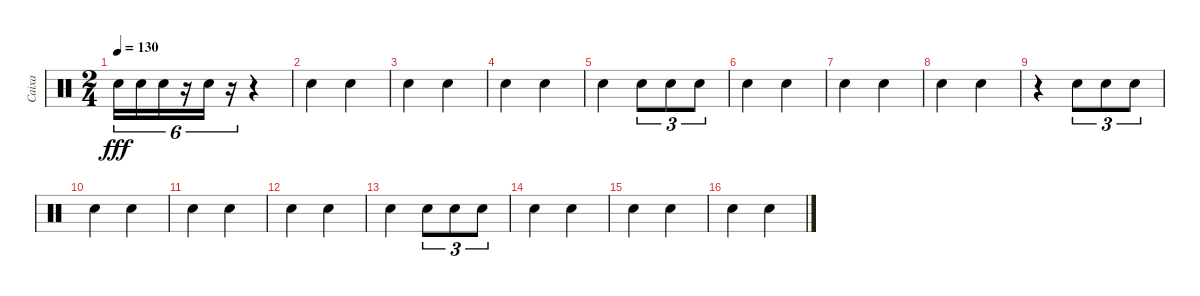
\track ("Caixa" "Caixa") {instrument percussion}
\staff {score}
\articulation defaults
\ts (2 4)
\tempo 130
\clef neutral
\ks c "Electric Snare (hit)".16{tu (6 4) dy fff} "Electric Snare (hit)".16{tu (6 4)} "Electric Snare (hit)".16{tu (6 4)}
r.16{tu (6 4)} "Electric Snare (hit)".16{tu (6 4)} r.16{tu (6 4)} r.4 |
"Electric Snare (hit)".4 "Electric Snare (hit)".4 |
"Electric Snare (hit)".4 "Electric Snare (hit)".4 |
"Electric Snare (hit)".4 "Electric Snare (hit)".4 |
"Electric Snare (hit)".4 "Electric Snare (hit)".8{tu (3 2)} "Electric Snare (hit)".8{tu (3 2)} "Electric Snare (hit)".8{tu (3 2)} |
"Electric Snare (hit)".4 "Electric Snare (hit)".4 |
"Electric Snare (hit)".4 "Electric Snare (hit)".4 |
"Electric Snare (hit)".4 "Electric Snare (hit)".4 |
r.4 "Electric Snare (hit)".8{tu (3 2)} "Electric Snare (hit)".8{tu (3 2)} "Electric Snare (hit)".8{tu (3 2)} |
"Electric Snare (hit)".4 "Electric Snare (hit)".4 |
"Electric Snare (hit)".4 "Electric Snare (hit)".4 |
"Electric Snare (hit)".4 "Electric Snare (hit)".4 |
"Electric Snare (hit)".4 "Electric Snare (hit)".8{tu (3 2)} "Electric Snare (hit)".8{tu (3 2)} "Electric Snare (hit)".8{tu (3 2)} |
"Electric Snare (hit)".4 "Electric Snare (hit)".4 |
"Electric Snare (hit)".4 "Electric Snare (hit)".4 |
"Electric Snare (hit)".4 "Electric Snare (hit)".4
